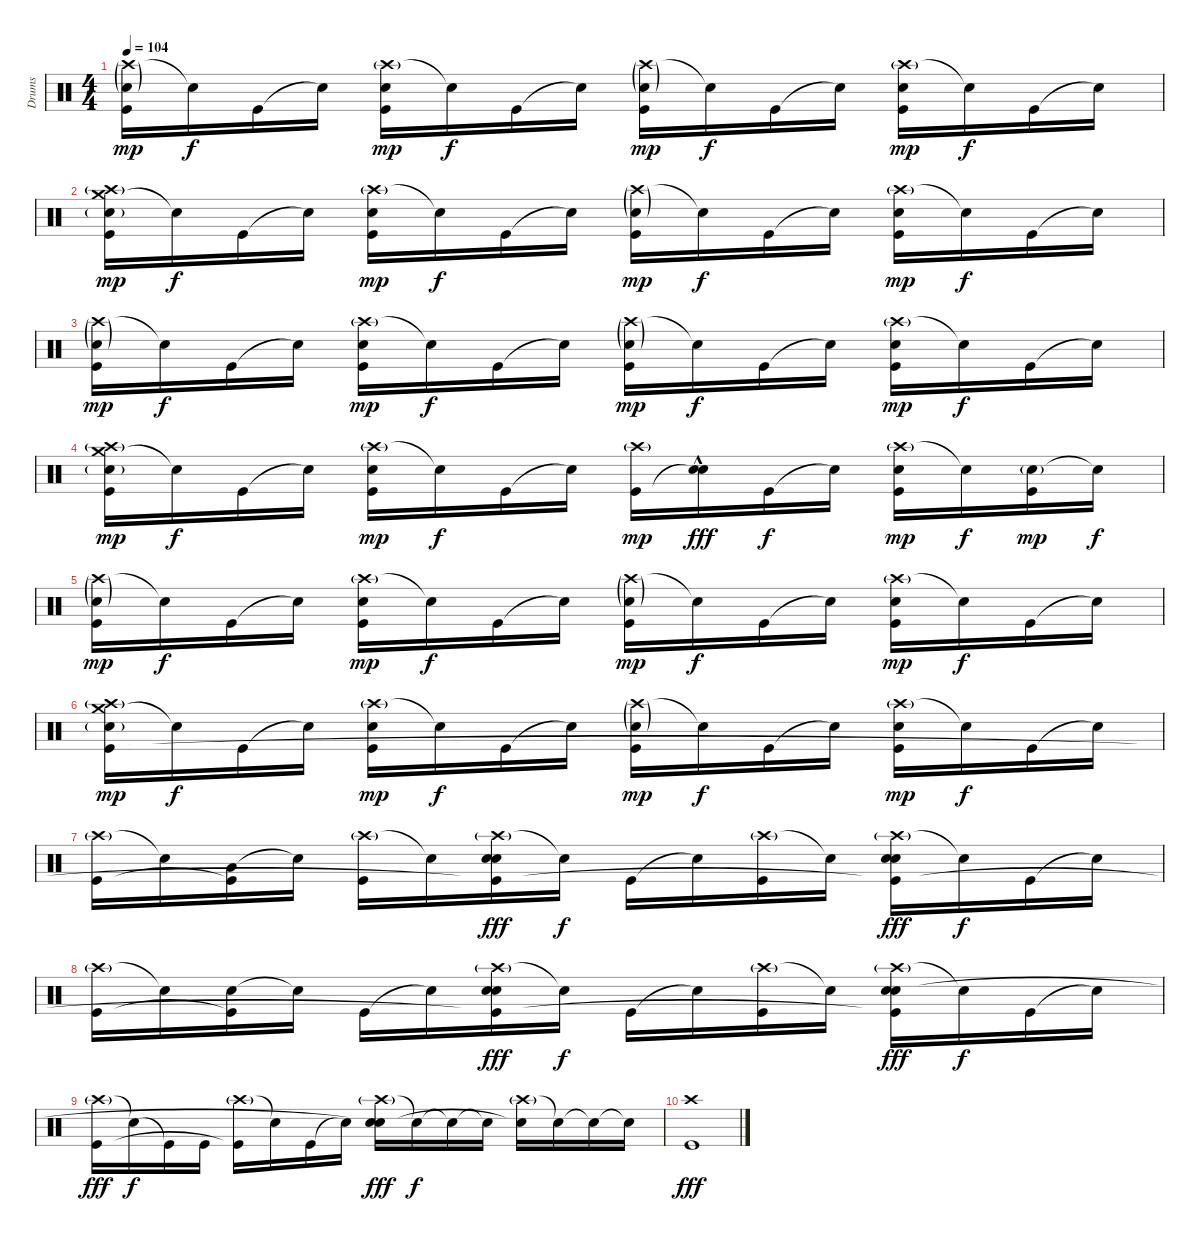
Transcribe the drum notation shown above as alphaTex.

\track ("Drums" "Drums") {instrument percussion}
\staff {score}
\articulation defaults
\ts (4 4)
\tempo 104
\clef neutral
\ks c
("Crash high (hit)"{g} "Electric Snare (hit)"{g} "Kick (hit)").16{dy mp} "Snare (hit)"{t}.16{dy f} "Kick (hit)".16 "Snare (hit)"{t}.16 ("Crash high (hit)"{g} "Electric Snare (hit)" "Kick (hit)").16{dy mp} "Snare (hit)"{t}.16{dy f} "Kick (hit)".16 "Snare (hit)"{t}.16 ("Crash high (hit)"{g} "Electric Snare (hit)"{g} "Kick (hit)").16{dy mp} "Snare (hit)"{t}.16{dy f} "Kick (hit)".16 "Snare (hit)"{t}.16 ("Crash high (hit)"{g} "Electric Snare (hit)" "Kick (hit)").16{dy mp} "Snare (hit)"{t}.16{dy f} "Kick (hit)".16 "Snare (hit)"{t}.16 |
("Crash medium (hit)" "Crash high (hit)"{g} "Electric Snare (hit)"{g} "Kick (hit)").16{dy mp} "Snare (hit)"{t}.16{dy f} "Kick (hit)".16 "Snare (hit)"{t}.16 ("Crash high (hit)"{g} "Electric Snare (hit)" "Kick (hit)").16{dy mp} "Snare (hit)"{t}.16{dy f} "Kick (hit)".16 "Snare (hit)"{t}.16 ("Crash high (hit)"{g} "Electric Snare (hit)"{g} "Kick (hit)").16{dy mp} "Snare (hit)"{t}.16{dy f} "Kick (hit)".16 "Snare (hit)"{t}.16 ("Crash high (hit)"{g} "Electric Snare (hit)" "Kick (hit)").16{dy mp} "Snare (hit)"{t}.16{dy f} "Kick (hit)".16 "Snare (hit)"{t}.16 |
("Crash high (hit)"{g} "Electric Snare (hit)"{g} "Kick (hit)").16{dy mp} "Snare (hit)"{t}.16{dy f} "Kick (hit)".16 "Snare (hit)"{t}.16 ("Crash high (hit)"{g} "Electric Snare (hit)" "Kick (hit)").16{dy mp} "Snare (hit)"{t}.16{dy f} "Kick (hit)".16 "Snare (hit)"{t}.16 ("Crash high (hit)"{g} "Electric Snare (hit)"{g} "Kick (hit)").16{dy mp} "Snare (hit)"{t}.16{dy f} "Kick (hit)".16 "Snare (hit)"{t}.16 ("Crash high (hit)"{g} "Electric Snare (hit)" "Kick (hit)").16{dy mp} "Snare (hit)"{t}.16{dy f} "Kick (hit)".16 "Snare (hit)"{t}.16 |
("Crash medium (hit)" "Crash high (hit)"{g} "Electric Snare (hit)"{g} "Kick (hit)").16{dy mp} "Snare (hit)"{t}.16{dy f} "Kick (hit)".16 "Snare (hit)"{t}.16 ("Crash high (hit)"{g} "Electric Snare (hit)" "Kick (hit)").16{dy mp} "Snare (hit)"{t}.16{dy f} "Kick (hit)".16 "Snare (hit)"{t}.16 ("Crash high (hit)"{g} "Kick (hit)").16{dy mp} ("Electric Snare (hit)"{hac} "Snare (hit)"{t}).16{dy fff} "Kick (hit)".16{dy f} "Snare (hit)"{t}.16 ("Crash high (hit)"{g} "Electric Snare (hit)" "Kick (hit)").16{dy mp} "Snare (hit)"{t}.16{dy f} ("Electric Snare (hit)"{g} "Kick (hit)").16{dy mp} "Snare (hit)"{t}.16{dy f} |
("Crash high (hit)"{g} "Electric Snare (hit)"{g} "Kick (hit)").16{dy mp} "Snare (hit)"{t}.16{dy f} "Kick (hit)".16 "Snare (hit)"{t}.16 ("Crash high (hit)"{g} "Electric Snare (hit)" "Kick (hit)").16{dy mp} "Snare (hit)"{t}.16{dy f} "Kick (hit)".16 "Snare (hit)"{t}.16 ("Crash high (hit)"{g} "Electric Snare (hit)"{g} "Kick (hit)").16{dy mp} "Snare (hit)"{t}.16{dy f} "Kick (hit)".16 "Snare (hit)"{t}.16 ("Crash high (hit)"{g} "Electric Snare (hit)" "Kick (hit)").16{dy mp} "Snare (hit)"{t}.16{dy f} "Kick (hit)".16 "Snare (hit)"{t}.16 |
("Crash medium (hit)" "Crash high (hit)"{g} "Electric Snare (hit)"{g} "Kick (hit)").16{dy mp} "Snare (hit)"{t}.16{dy f} "Kick (hit)".16 "Snare (hit)"{t}.16 ("Crash high (hit)"{g} "Electric Snare (hit)" "Kick (hit)").16{dy mp} "Snare (hit)"{t}.16{dy f} "Kick (hit)".16 "Snare (hit)"{t}.16 ("Crash high (hit)"{g} "Electric Snare (hit)"{g} "Kick (hit)").16{dy mp} "Snare (hit)"{t}.16{dy f} "Kick (hit)".16 "Snare (hit)"{t}.16 ("Crash high (hit)"{g} "Electric Snare (hit)" "Kick (hit)").16{dy mp} "Snare (hit)"{t}.16{dy f} "Kick (hit)".16 "Snare (hit)"{t}.16 |
("Crash high (hit)"{g} "Kick (hit)").16 "Snare (hit)"{t}.16 ("Low Tom (hit)" "Kick (hit)"{t}).16 "Snare (hit)"{t}.16 ("Crash high (hit)"{g} "Kick (hit)").16 "Snare (hit)"{t}.16 ("Crash high (hit)"{g} "Snare (hit) 2" "Electric Snare (hit)" "Kick (hit)"{t}).16{dy fff} "Snare (hit)"{t}.16{dy f} "Kick (hit)".16 "Snare (hit)"{t}.16 ("Crash high (hit)"{g} "Kick (hit)").16 "Snare (hit)"{t}.16 ("Crash high (hit)"{g} "Snare (hit) 2" "Electric Snare (hit)" "Kick (hit)"{t}).16{dy fff} "Snare (hit)"{t}.16{dy f} "Kick (hit)".16 "Snare (hit)"{t}.16 |
("Crash high (hit)"{g} "Kick (hit)").16 "Snare (hit)"{t}.16 ("Electric Snare (hit)" "Kick (hit)"{t}).16 "Snare (hit)"{t}.16 "Kick (hit)".16 "Snare (hit)"{t}.16 ("Crash high (hit)"{g} "Snare (hit) 2" "Electric Snare (hit)" "Kick (hit)"{t}).16{dy fff} "Snare (hit)"{t}.16{dy f} "Kick (hit)".16 "Snare (hit)"{t}.16 ("Crash high (hit)"{g} "Kick (hit)").16 "Snare (hit)"{t}.16 ("Crash high (hit)"{g} "Snare (hit) 2" "Electric Snare (hit)" "Kick (hit)"{t}).16{dy fff} "Snare (hit)"{t}.16{dy f} "Kick (hit)".16 "Snare (hit)"{t}.16 |
("Crash high (hit)"{g} "Kick (hit)").16{dy fff} "Snare (hit)"{t}.16{dy f} "Kick (hit)"{t}.16 "Kick (hit)".16 ("Crash high (hit)"{g} "Kick (hit)"{t}).16 "Snare (hit)"{t}.16 "Kick (hit)".16 "Snare (hit)"{t}.16 ("Crash high (hit)"{g} "Electric Snare (hit)" "Snare (hit)"{t}).16{dy fff} "Snare (hit)"{t}.16{dy f} "Snare (hit)"{t}.16 "Snare (hit)"{t}.16 ("Crash high (hit)"{g} "Snare (hit)"{t}).16 "Snare (hit)"{t}.16 "Snare (hit)"{t}.16 "Snare (hit)"{t}.16 |
("Crash high (hit)" "Kick (hit)").1{dy fff}
